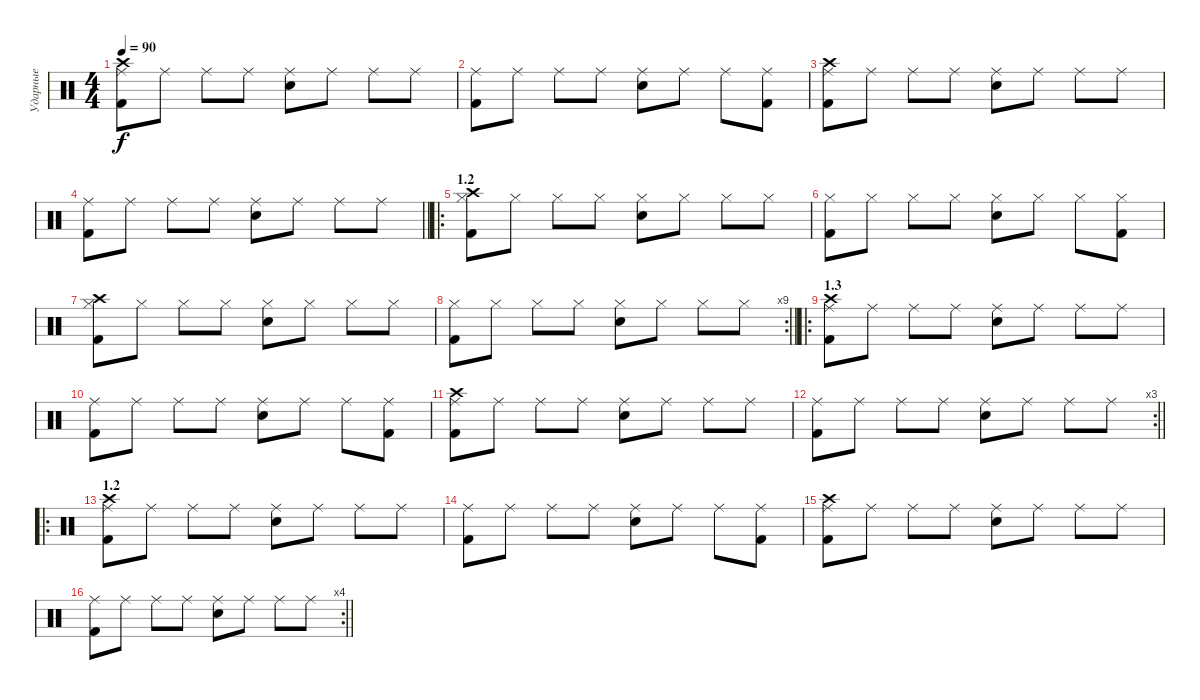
\track ("Ударные" "Ударные") {instrument percussion}
\staff {score}
\articulation defaults
\ts (4 4)
\tempo 90
\clef neutral
\ks c
("Crash high (hit)" "Ride (middle)" "Kick (hit) 2").8{dy f} "Ride (middle)".8 "Ride (middle)".8 "Ride (middle)".8 ("Ride (middle)" "Electric Snare (hit)").8 "Ride (middle)".8 "Ride (middle)".8 "Ride (middle)".8 |
("Ride (middle)" "Kick (hit) 2").8 "Ride (middle)".8 "Ride (middle)".8 "Ride (middle)".8 ("Ride (middle)" "Electric Snare (hit)").8 "Ride (middle)".8 "Ride (middle)".8 ("Ride (middle)" "Kick (hit) 2").8 |
("Crash high (hit)" "Ride (middle)" "Kick (hit) 2").8 "Ride (middle)".8 "Ride (middle)".8 "Ride (middle)".8 ("Ride (middle)" "Electric Snare (hit)").8 "Ride (middle)".8 "Ride (middle)".8 "Ride (middle)".8 |
\barLineRight lightlight
("Ride (middle)" "Kick (hit) 2").8 "Ride (middle)".8 "Ride (middle)".8 "Ride (middle)".8 ("Ride (middle)" "Electric Snare (hit)").8 "Ride (middle)".8 "Ride (middle)".8 "Ride (middle)".8 |
\ro
\section ("" "1.2")
("Crash high (hit)" "Hi-Hat (closed)" "Kick (hit) 2").8 "Hi-Hat (closed)".8 "Hi-Hat (closed)".8 "Hi-Hat (closed)".8 ("Hi-Hat (closed)" "Electric Snare (hit)").8 "Hi-Hat (closed)".8 "Hi-Hat (closed)".8 "Hi-Hat (closed)".8 |
("Hi-Hat (closed)" "Kick (hit) 2").8 "Hi-Hat (closed)".8 "Hi-Hat (closed)".8 "Hi-Hat (closed)".8 ("Hi-Hat (closed)" "Electric Snare (hit)").8 "Hi-Hat (closed)".8 "Hi-Hat (closed)".8 ("Hi-Hat (closed)" "Kick (hit) 2").8 |
("Crash high (hit)" "Hi-Hat (closed)" "Kick (hit) 2").8 "Hi-Hat (closed)".8 "Hi-Hat (closed)".8 "Hi-Hat (closed)".8 ("Hi-Hat (closed)" "Electric Snare (hit)").8 "Hi-Hat (closed)".8 "Hi-Hat (closed)".8 "Hi-Hat (closed)".8 |
\rc 9
\barLineRight lightlight
("Hi-Hat (closed)" "Kick (hit) 2").8 "Hi-Hat (closed)".8 "Hi-Hat (closed)".8 "Hi-Hat (closed)".8 ("Hi-Hat (closed)" "Electric Snare (hit)").8 "Hi-Hat (closed)".8 "Hi-Hat (closed)".8 "Hi-Hat (closed)".8 |
\ro
\section ("" "1.3")
("Crash high (hit)" "Ride (middle)" "Kick (hit) 2").8 "Ride (middle)".8 "Ride (middle)".8 "Ride (middle)".8 ("Ride (middle)" "Electric Snare (hit)").8 "Ride (middle)".8 "Ride (middle)".8 "Ride (middle)".8 |
("Ride (middle)" "Kick (hit) 2").8 "Ride (middle)".8 "Ride (middle)".8 "Ride (middle)".8 ("Ride (middle)" "Electric Snare (hit)").8 "Ride (middle)".8 "Ride (middle)".8 ("Ride (middle)" "Kick (hit) 2").8 |
("Crash high (hit)" "Ride (middle)" "Kick (hit) 2").8 "Ride (middle)".8 "Ride (middle)".8 "Ride (middle)".8 ("Ride (middle)" "Electric Snare (hit)").8 "Ride (middle)".8 "Ride (middle)".8 "Ride (middle)".8 |
\rc 3
\barLineRight lightlight
("Ride (middle)" "Kick (hit) 2").8 "Ride (middle)".8 "Ride (middle)".8 "Ride (middle)".8 ("Ride (middle)" "Electric Snare (hit)").8 "Ride (middle)".8 "Ride (middle)".8 "Ride (middle)".8 |
\ro
\section ("" "1.2")
("Crash high (hit)" "Ride (middle)" "Kick (hit) 2").8 "Ride (middle)".8 "Ride (middle)".8 "Ride (middle)".8 ("Ride (middle)" "Electric Snare (hit)").8 "Ride (middle)".8 "Ride (middle)".8 "Ride (middle)".8 |
("Ride (middle)" "Kick (hit) 2").8 "Ride (middle)".8 "Ride (middle)".8 "Ride (middle)".8 ("Ride (middle)" "Electric Snare (hit)").8 "Ride (middle)".8 "Ride (middle)".8 ("Ride (middle)" "Kick (hit) 2").8 |
("Crash high (hit)" "Ride (middle)" "Kick (hit) 2").8 "Ride (middle)".8 "Ride (middle)".8 "Ride (middle)".8 ("Ride (middle)" "Electric Snare (hit)").8 "Ride (middle)".8 "Ride (middle)".8 "Ride (middle)".8 |
\rc 4
\barLineRight lightlight
("Ride (middle)" "Kick (hit) 2").8 "Ride (middle)".8 "Ride (middle)".8 "Ride (middle)".8 ("Ride (middle)" "Electric Snare (hit)").8 "Ride (middle)".8 "Ride (middle)".8 "Ride (middle)".8
